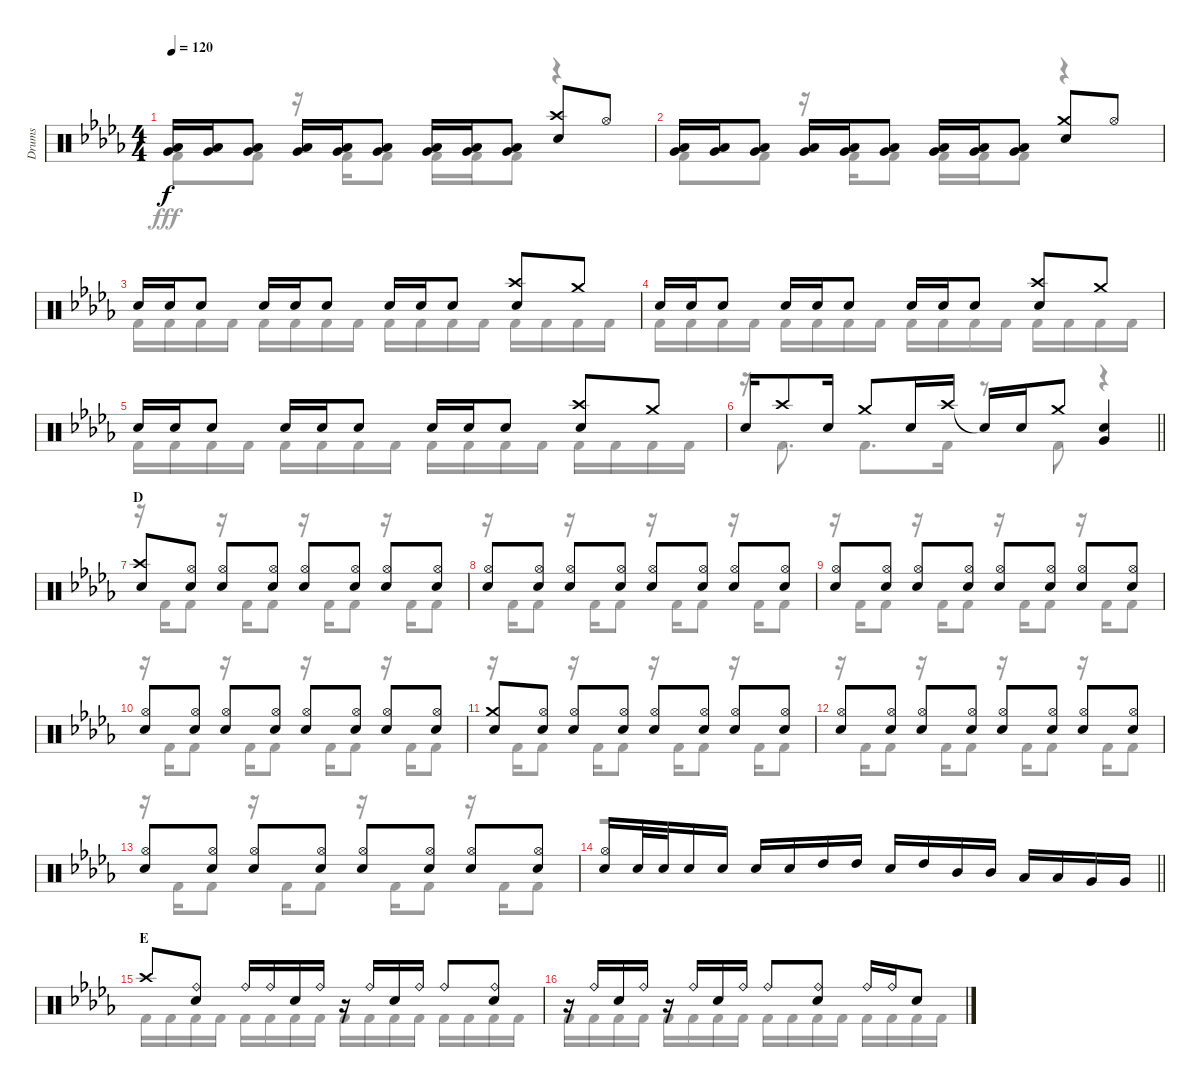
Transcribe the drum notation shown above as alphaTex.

\track ("Drums" "Drums") {instrument percussion}
\staff {score}
\articulation defaults
\voice
\ts (4 4)
\tempo 120
\clef neutral
\ks db
("Low Tom (hit)" "Very Low Tom (hit)").16{dy f} ("Low Tom (hit)" "Very Low Tom (hit)").16 ("Low Tom (hit)" "Very Low Tom (hit)").8 ("Low Tom (hit)" "Very Low Tom (hit)").16 ("Low Tom (hit)" "Very Low Tom (hit)").16 ("Low Tom (hit)" "Very Low Tom (hit)").8 ("Low Tom (hit)" "Very Low Tom (hit)").16 ("Low Tom (hit)" "Very Low Tom (hit)").16 ("Low Tom (hit)" "Very Low Tom (hit)").8 ("Crash high (hit)" "Snare (hit) 2").8 "Hi-Hat (open)".8 |
("Low Tom (hit)" "Very Low Tom (hit)").16 ("Low Tom (hit)" "Very Low Tom (hit)").16 ("Low Tom (hit)" "Very Low Tom (hit)").8 ("Low Tom (hit)" "Very Low Tom (hit)").16 ("Low Tom (hit)" "Very Low Tom (hit)").16 ("Low Tom (hit)" "Very Low Tom (hit)").8 ("Low Tom (hit)" "Very Low Tom (hit)").16 ("Low Tom (hit)" "Very Low Tom (hit)").16 ("Low Tom (hit)" "Very Low Tom (hit)").8 ("Crash medium (hit)" "Snare (hit) 2").8 "Hi-Hat (open)".8 |
"Snare (hit) 2".16 "Snare (hit) 2".16 "Snare (hit) 2".8 "Snare (hit) 2".16 "Snare (hit) 2".16 "Snare (hit) 2".8 "Snare (hit) 2".16 "Snare (hit) 2".16 "Snare (hit) 2".8 ("Crash high (hit)" "Snare (hit) 2").8 "Crash medium (hit)".8 |
"Snare (hit) 2".16 "Snare (hit) 2".16 "Snare (hit) 2".8 "Snare (hit) 2".16 "Snare (hit) 2".16 "Snare (hit) 2".8 "Snare (hit) 2".16 "Snare (hit) 2".16 "Snare (hit) 2".8 ("Crash high (hit)" "Snare (hit) 2").8 "Crash medium (hit)".8 |
"Snare (hit) 2".16 "Snare (hit) 2".16 "Snare (hit) 2".8 "Snare (hit) 2".16 "Snare (hit) 2".16 "Snare (hit) 2".8 "Snare (hit) 2".16 "Snare (hit) 2".16 "Snare (hit) 2".8 ("Crash high (hit)" "Snare (hit) 2").8 "Crash medium (hit)".8 |
\barLineRight lightlight "Snare (hit) 2".16 "Crash high (hit)".8 "Snare (hit) 2".16 "Crash medium (hit)".8 "Snare (hit) 2".16 "Crash high (hit)".16 "Snare (hit)"{t}.16 "Snare (hit) 2".16 "Crash medium (hit)".8
("Snare (hit) 2" "Very Low Tom (hit)").4 |
\section ("" "D")
("Crash high (hit)" "Snare (hit) 2").8 ("Hi-Hat (open)" "Snare (hit) 2").8 ("Hi-Hat (open)" "Snare (hit) 2").8 ("Hi-Hat (open)" "Snare (hit) 2").8 ("Hi-Hat (open)" "Snare (hit) 2").8 ("Hi-Hat (open)" "Snare (hit) 2").8 ("Hi-Hat (open)" "Snare (hit) 2").8 ("Hi-Hat (open)" "Snare (hit) 2").8 |
("Hi-Hat (open)" "Snare (hit) 2").8 ("Hi-Hat (open)" "Snare (hit) 2").8 ("Hi-Hat (open)" "Snare (hit) 2").8 ("Hi-Hat (open)" "Snare (hit) 2").8 ("Hi-Hat (open)" "Snare (hit) 2").8 ("Hi-Hat (open)" "Snare (hit) 2").8 ("Hi-Hat (open)" "Snare (hit) 2").8 ("Hi-Hat (open)" "Snare (hit) 2").8 |
("Hi-Hat (open)" "Snare (hit) 2").8 ("Hi-Hat (open)" "Snare (hit) 2").8 ("Hi-Hat (open)" "Snare (hit) 2").8 ("Hi-Hat (open)" "Snare (hit) 2").8 ("Hi-Hat (open)" "Snare (hit) 2").8 ("Hi-Hat (open)" "Snare (hit) 2").8 ("Hi-Hat (open)" "Snare (hit) 2").8 ("Hi-Hat (open)" "Snare (hit) 2").8 |
("Hi-Hat (open)" "Snare (hit) 2").8 ("Hi-Hat (open)" "Snare (hit) 2").8 ("Hi-Hat (open)" "Snare (hit) 2").8 ("Hi-Hat (open)" "Snare (hit) 2").8 ("Hi-Hat (open)" "Snare (hit) 2").8 ("Hi-Hat (open)" "Snare (hit) 2").8 ("Hi-Hat (open)" "Snare (hit) 2").8 ("Hi-Hat (open)" "Snare (hit) 2").8 |
("Crash medium (hit)" "Snare (hit) 2").8 ("Hi-Hat (open)" "Snare (hit) 2").8 ("Hi-Hat (open)" "Snare (hit) 2").8 ("Hi-Hat (open)" "Snare (hit) 2").8 ("Hi-Hat (open)" "Snare (hit) 2").8 ("Hi-Hat (open)" "Snare (hit) 2").8 ("Hi-Hat (open)" "Snare (hit) 2").8 ("Hi-Hat (open)" "Snare (hit) 2").8 |
("Hi-Hat (open)" "Snare (hit) 2").8 ("Hi-Hat (open)" "Snare (hit) 2").8 ("Hi-Hat (open)" "Snare (hit) 2").8 ("Hi-Hat (open)" "Snare (hit) 2").8 ("Hi-Hat (open)" "Snare (hit) 2").8 ("Hi-Hat (open)" "Snare (hit) 2").8 ("Hi-Hat (open)" "Snare (hit) 2").8 ("Hi-Hat (open)" "Snare (hit) 2").8 |
("Hi-Hat (open)" "Snare (hit) 2").8 ("Hi-Hat (open)" "Snare (hit) 2").8 ("Hi-Hat (open)" "Snare (hit) 2").8 ("Hi-Hat (open)" "Snare (hit) 2").8 ("Hi-Hat (open)" "Snare (hit) 2").8 ("Hi-Hat (open)" "Snare (hit) 2").8 ("Hi-Hat (open)" "Snare (hit) 2").8 ("Hi-Hat (open)" "Snare (hit) 2").8 |
\barLineRight lightlight
("Hi-Hat (open)" "Snare (hit) 2").16 "Snare (hit) 2".32 "Snare (hit) 2".32 "Snare (hit) 2".16 "Snare (hit) 2".16 "Snare (hit) 2".16 "Snare (hit) 2".16 "High Tom (hit)".16 "High Tom (hit)".16 "Snare (hit) 2".16 "High Tom (hit)".16 "Mid Tom (hit)".16 "Mid Tom (hit)".16 "Low Tom (hit)".16 "Low Tom (hit)".16 "Very Low Tom (hit)".16 "Very Low Tom (hit)".16 |
\section ("" "E")
"Crash high (hit)".8 ("Ride (bell)" "Snare (hit) 2").8 "Ride (bell)".16 "Ride (bell)".16 "Snare (hit) 2".16 "Ride (bell)".16 r.16 "Ride (bell)".16 "Snare (hit) 2".16 "Ride (bell)".16 "Ride (bell)".8 ("Ride (bell)" "Snare (hit) 2").8 |
r.16 "Ride (bell)".16 "Snare (hit) 2".16 "Ride (bell)".16 r.16 "Ride (bell)".16 "Snare (hit) 2".16 "Ride (bell)".16 "Ride (bell)".8 ("Ride (bell)" "Snare (hit) 2").8 "Ride (bell)".16 "Ride (bell)".16 "Snare (hit) 2".8
\voice
\clef neutral
\ottava regular
\simile none
\ks db "Kick (hit) 2".8{dy fff} "Kick (hit) 2".8
r.16 "Kick (hit) 2".16 "Kick (hit) 2".8 "Kick (hit) 2".16 "Kick (hit) 2".16 "Kick (hit) 2".8 r.4 |
"Kick (hit) 2".8 "Kick (hit) 2".8 r.16 "Kick (hit) 2".16 "Kick (hit) 2".8 "Kick (hit) 2".16 "Kick (hit) 2".16 "Kick (hit) 2".8 r.4 |
"Kick (hit) 2".16 "Kick (hit) 2".16 "Kick (hit) 2".16 "Kick (hit) 2".16 "Kick (hit) 2".16 "Kick (hit) 2".16 "Kick (hit) 2".16 "Kick (hit) 2".16 "Kick (hit) 2".16 "Kick (hit) 2".16 "Kick (hit) 2".16 "Kick (hit) 2".16 "Kick (hit) 2".16 "Kick (hit) 2".16 "Kick (hit) 2".16 "Kick (hit) 2".16 |
"Kick (hit) 2".16 "Kick (hit) 2".16 "Kick (hit) 2".16 "Kick (hit) 2".16 "Kick (hit) 2".16 "Kick (hit) 2".16 "Kick (hit) 2".16 "Kick (hit) 2".16 "Kick (hit) 2".16 "Kick (hit) 2".16 "Kick (hit) 2".16 "Kick (hit) 2".16 "Kick (hit) 2".16 "Kick (hit) 2".16 "Kick (hit) 2".16 "Kick (hit) 2".16 |
"Kick (hit) 2".16 "Kick (hit) 2".16 "Kick (hit) 2".16 "Kick (hit) 2".16 "Kick (hit) 2".16 "Kick (hit) 2".16 "Kick (hit) 2".16 "Kick (hit) 2".16 "Kick (hit) 2".16 "Kick (hit) 2".16 "Kick (hit) 2".16 "Kick (hit) 2".16 "Kick (hit) 2".16 "Kick (hit) 2".16 "Kick (hit) 2".16 "Kick (hit) 2".16 |
\barLineRight lightlight
r.16 "Kick (hit) 2".8{d} "Kick (hit) 2".8{d} "Kick (hit) 2".16 r.8 "Kick (hit) 2".8 r.4 |
r.16 "Kick (hit) 2".16 "Kick (hit) 2".8 r.16 "Kick (hit) 2".16 "Kick (hit) 2".8 r.16 "Kick (hit) 2".16 "Kick (hit) 2".8 r.16 "Kick (hit) 2".16 "Kick (hit) 2".8 |
r.16 "Kick (hit) 2".16 "Kick (hit) 2".8 r.16 "Kick (hit) 2".16 "Kick (hit) 2".8 r.16 "Kick (hit) 2".16 "Kick (hit) 2".8 r.16 "Kick (hit) 2".16 "Kick (hit) 2".8 |
r.16 "Kick (hit) 2".16 "Kick (hit) 2".8 r.16 "Kick (hit) 2".16 "Kick (hit) 2".8 r.16 "Kick (hit) 2".16 "Kick (hit) 2".8 r.16 "Kick (hit) 2".16 "Kick (hit) 2".8 |
r.16 "Kick (hit) 2".16 "Kick (hit) 2".8 r.16 "Kick (hit) 2".16 "Kick (hit) 2".8 r.16 "Kick (hit) 2".16 "Kick (hit) 2".8 r.16 "Kick (hit) 2".16 "Kick (hit) 2".8 |
r.16 "Kick (hit) 2".16 "Kick (hit) 2".8 r.16 "Kick (hit) 2".16 "Kick (hit) 2".8 r.16 "Kick (hit) 2".16 "Kick (hit) 2".8 r.16 "Kick (hit) 2".16 "Kick (hit) 2".8 |
r.16 "Kick (hit) 2".16 "Kick (hit) 2".8 r.16 "Kick (hit) 2".16 "Kick (hit) 2".8 r.16 "Kick (hit) 2".16 "Kick (hit) 2".8 r.16 "Kick (hit) 2".16 "Kick (hit) 2".8 |
r.16 "Kick (hit) 2".16 "Kick (hit) 2".8 r.16 "Kick (hit) 2".16 "Kick (hit) 2".8 r.16 "Kick (hit) 2".16 "Kick (hit) 2".8 r.16 "Kick (hit) 2".16 "Kick (hit) 2".8 |
\barLineRight lightlight
r.1 |
"Kick (hit) 2".16 "Kick (hit) 2".16 "Kick (hit) 2".16 "Kick (hit) 2".16 "Kick (hit) 2".16 "Kick (hit) 2".16 "Kick (hit) 2".16 "Kick (hit) 2".16 "Kick (hit) 2".16 "Kick (hit) 2".16 "Kick (hit) 2".16 "Kick (hit) 2".16 "Kick (hit) 2".16 "Kick (hit) 2".16 "Kick (hit) 2".16 "Kick (hit) 2".16 |
"Kick (hit) 2".16 "Kick (hit) 2".16 "Kick (hit) 2".16 "Kick (hit) 2".16 "Kick (hit) 2".16 "Kick (hit) 2".16 "Kick (hit) 2".16 "Kick (hit) 2".16 "Kick (hit) 2".16 "Kick (hit) 2".16 "Kick (hit) 2".16 "Kick (hit) 2".16 "Kick (hit) 2".16 "Kick (hit) 2".16 "Kick (hit) 2".16 "Kick (hit) 2".16
